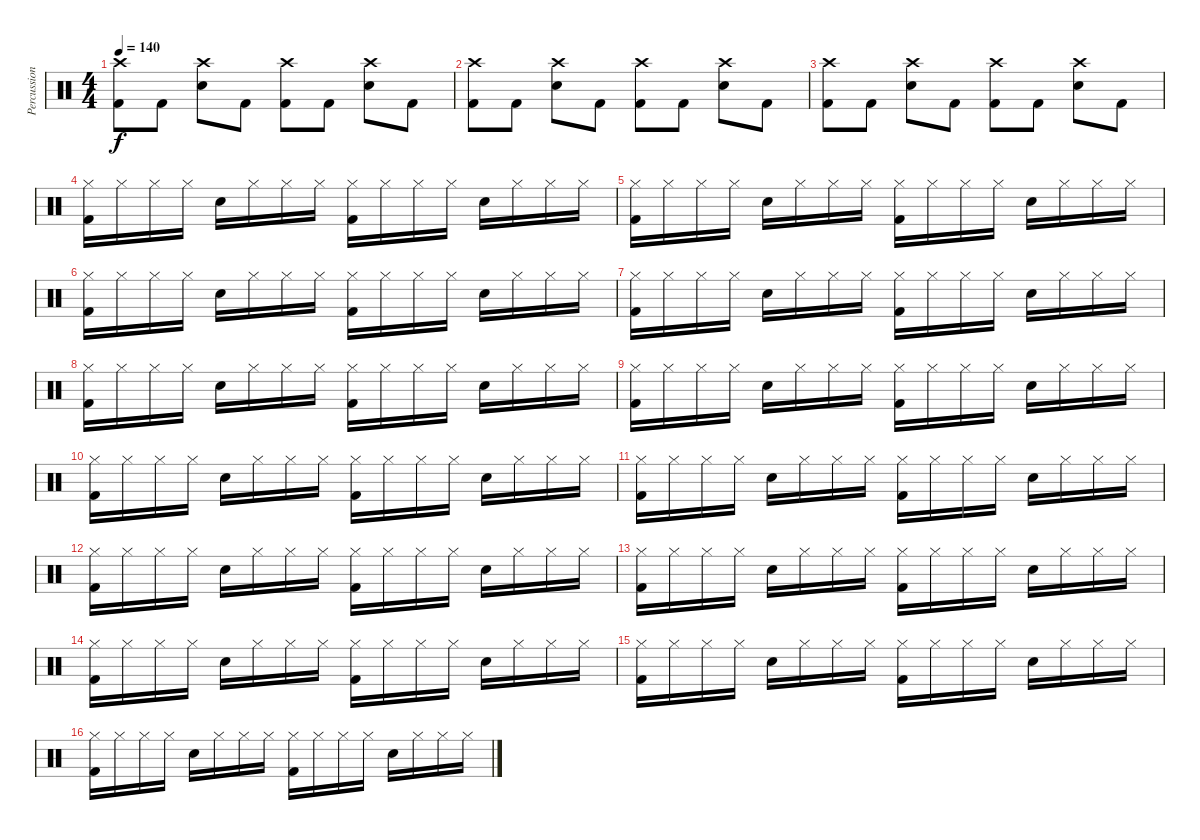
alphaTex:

\track ("Percussion" "Percussion") {instrument percussion}
\staff {score}
\articulation defaults
\ts (4 4)
\tempo 140
\clef neutral
\ks c
("Crash high (hit)" "Kick (hit) 2").8{dy f} "Kick (hit) 2".8 ("Crash high (hit)" "Electric Snare (hit)").8 "Kick (hit) 2".8 ("Crash high (hit)" "Kick (hit) 2").8 "Kick (hit) 2".8 ("Crash high (hit)" "Electric Snare (hit)").8 "Kick (hit) 2".8 |
("Crash high (hit)" "Kick (hit) 2").8 "Kick (hit) 2".8 ("Crash high (hit)" "Electric Snare (hit)").8 "Kick (hit) 2".8 ("Crash high (hit)" "Kick (hit) 2").8 "Kick (hit) 2".8 ("Crash high (hit)" "Electric Snare (hit)").8 "Kick (hit) 2".8 |
("Crash high (hit)" "Kick (hit) 2").8 "Kick (hit) 2".8 ("Crash high (hit)" "Electric Snare (hit)").8 "Kick (hit) 2".8 ("Crash high (hit)" "Kick (hit) 2").8 "Kick (hit) 2".8 ("Crash high (hit)" "Electric Snare (hit)").8 "Kick (hit) 2".8 |
("Hi-Hat (closed)" "Kick (hit) 2").16 "Hi-Hat (closed)".16 "Hi-Hat (closed)".16 "Hi-Hat (closed)".16 "Electric Snare (hit)".16 "Hi-Hat (closed)".16 "Hi-Hat (closed)".16 "Hi-Hat (closed)".16 ("Hi-Hat (closed)" "Kick (hit) 2").16 "Hi-Hat (closed)".16 "Hi-Hat (closed)".16 "Hi-Hat (closed)".16 "Electric Snare (hit)".16 "Hi-Hat (closed)".16 "Hi-Hat (closed)".16 "Hi-Hat (closed)".16 |
("Hi-Hat (closed)" "Kick (hit) 2").16 "Hi-Hat (closed)".16 "Hi-Hat (closed)".16 "Hi-Hat (closed)".16 "Electric Snare (hit)".16 "Hi-Hat (closed)".16 "Hi-Hat (closed)".16 "Hi-Hat (closed)".16 ("Hi-Hat (closed)" "Kick (hit) 2").16 "Hi-Hat (closed)".16 "Hi-Hat (closed)".16 "Hi-Hat (closed)".16 "Electric Snare (hit)".16 "Hi-Hat (closed)".16 "Hi-Hat (closed)".16 "Hi-Hat (closed)".16 |
("Hi-Hat (closed)" "Kick (hit) 2").16 "Hi-Hat (closed)".16 "Hi-Hat (closed)".16 "Hi-Hat (closed)".16 "Electric Snare (hit)".16 "Hi-Hat (closed)".16 "Hi-Hat (closed)".16 "Hi-Hat (closed)".16 ("Hi-Hat (closed)" "Kick (hit) 2").16 "Hi-Hat (closed)".16 "Hi-Hat (closed)".16 "Hi-Hat (closed)".16 "Electric Snare (hit)".16 "Hi-Hat (closed)".16 "Hi-Hat (closed)".16 "Hi-Hat (closed)".16 |
("Hi-Hat (closed)" "Kick (hit) 2").16 "Hi-Hat (closed)".16 "Hi-Hat (closed)".16 "Hi-Hat (closed)".16 "Electric Snare (hit)".16 "Hi-Hat (closed)".16 "Hi-Hat (closed)".16 "Hi-Hat (closed)".16 ("Hi-Hat (closed)" "Kick (hit) 2").16 "Hi-Hat (closed)".16 "Hi-Hat (closed)".16 "Hi-Hat (closed)".16 "Electric Snare (hit)".16 "Hi-Hat (closed)".16 "Hi-Hat (closed)".16 "Hi-Hat (closed)".16 |
("Hi-Hat (closed)" "Kick (hit) 2").16 "Hi-Hat (closed)".16 "Hi-Hat (closed)".16 "Hi-Hat (closed)".16 "Electric Snare (hit)".16 "Hi-Hat (closed)".16 "Hi-Hat (closed)".16 "Hi-Hat (closed)".16 ("Hi-Hat (closed)" "Kick (hit) 2").16 "Hi-Hat (closed)".16 "Hi-Hat (closed)".16 "Hi-Hat (closed)".16 "Electric Snare (hit)".16 "Hi-Hat (closed)".16 "Hi-Hat (closed)".16 "Hi-Hat (closed)".16 |
("Hi-Hat (closed)" "Kick (hit) 2").16 "Hi-Hat (closed)".16 "Hi-Hat (closed)".16 "Hi-Hat (closed)".16 "Electric Snare (hit)".16 "Hi-Hat (closed)".16 "Hi-Hat (closed)".16 "Hi-Hat (closed)".16 ("Hi-Hat (closed)" "Kick (hit) 2").16 "Hi-Hat (closed)".16 "Hi-Hat (closed)".16 "Hi-Hat (closed)".16 "Electric Snare (hit)".16 "Hi-Hat (closed)".16 "Hi-Hat (closed)".16 "Hi-Hat (closed)".16 |
("Hi-Hat (closed)" "Kick (hit) 2").16 "Hi-Hat (closed)".16 "Hi-Hat (closed)".16 "Hi-Hat (closed)".16 "Electric Snare (hit)".16 "Hi-Hat (closed)".16 "Hi-Hat (closed)".16 "Hi-Hat (closed)".16 ("Hi-Hat (closed)" "Kick (hit) 2").16 "Hi-Hat (closed)".16 "Hi-Hat (closed)".16 "Hi-Hat (closed)".16 "Electric Snare (hit)".16 "Hi-Hat (closed)".16 "Hi-Hat (closed)".16 "Hi-Hat (closed)".16 |
("Hi-Hat (closed)" "Kick (hit) 2").16 "Hi-Hat (closed)".16 "Hi-Hat (closed)".16 "Hi-Hat (closed)".16 "Electric Snare (hit)".16 "Hi-Hat (closed)".16 "Hi-Hat (closed)".16 "Hi-Hat (closed)".16 ("Hi-Hat (closed)" "Kick (hit) 2").16 "Hi-Hat (closed)".16 "Hi-Hat (closed)".16 "Hi-Hat (closed)".16 "Electric Snare (hit)".16 "Hi-Hat (closed)".16 "Hi-Hat (closed)".16 "Hi-Hat (closed)".16 |
("Hi-Hat (closed)" "Kick (hit) 2").16 "Hi-Hat (closed)".16 "Hi-Hat (closed)".16 "Hi-Hat (closed)".16 "Electric Snare (hit)".16 "Hi-Hat (closed)".16 "Hi-Hat (closed)".16 "Hi-Hat (closed)".16 ("Hi-Hat (closed)" "Kick (hit) 2").16 "Hi-Hat (closed)".16 "Hi-Hat (closed)".16 "Hi-Hat (closed)".16 "Electric Snare (hit)".16 "Hi-Hat (closed)".16 "Hi-Hat (closed)".16 "Hi-Hat (closed)".16 |
("Hi-Hat (closed)" "Kick (hit) 2").16 "Hi-Hat (closed)".16 "Hi-Hat (closed)".16 "Hi-Hat (closed)".16 "Electric Snare (hit)".16 "Hi-Hat (closed)".16 "Hi-Hat (closed)".16 "Hi-Hat (closed)".16 ("Hi-Hat (closed)" "Kick (hit) 2").16 "Hi-Hat (closed)".16 "Hi-Hat (closed)".16 "Hi-Hat (closed)".16 "Electric Snare (hit)".16 "Hi-Hat (closed)".16 "Hi-Hat (closed)".16 "Hi-Hat (closed)".16 |
("Hi-Hat (closed)" "Kick (hit) 2").16 "Hi-Hat (closed)".16 "Hi-Hat (closed)".16 "Hi-Hat (closed)".16 "Electric Snare (hit)".16 "Hi-Hat (closed)".16 "Hi-Hat (closed)".16 "Hi-Hat (closed)".16 ("Hi-Hat (closed)" "Kick (hit) 2").16 "Hi-Hat (closed)".16 "Hi-Hat (closed)".16 "Hi-Hat (closed)".16 "Electric Snare (hit)".16 "Hi-Hat (closed)".16 "Hi-Hat (closed)".16 "Hi-Hat (closed)".16 |
("Hi-Hat (closed)" "Kick (hit) 2").16 "Hi-Hat (closed)".16 "Hi-Hat (closed)".16 "Hi-Hat (closed)".16 "Electric Snare (hit)".16 "Hi-Hat (closed)".16 "Hi-Hat (closed)".16 "Hi-Hat (closed)".16 ("Hi-Hat (closed)" "Kick (hit) 2").16 "Hi-Hat (closed)".16 "Hi-Hat (closed)".16 "Hi-Hat (closed)".16 "Electric Snare (hit)".16 "Hi-Hat (closed)".16 "Hi-Hat (closed)".16 "Hi-Hat (closed)".16 |
("Hi-Hat (closed)" "Kick (hit) 2").16 "Hi-Hat (closed)".16 "Hi-Hat (closed)".16 "Hi-Hat (closed)".16 "Electric Snare (hit)".16 "Hi-Hat (closed)".16 "Hi-Hat (closed)".16 "Hi-Hat (closed)".16 ("Hi-Hat (closed)" "Kick (hit) 2").16 "Hi-Hat (closed)".16 "Hi-Hat (closed)".16 "Hi-Hat (closed)".16 "Electric Snare (hit)".16 "Hi-Hat (closed)".16 "Hi-Hat (closed)".16 "Hi-Hat (closed)".16
